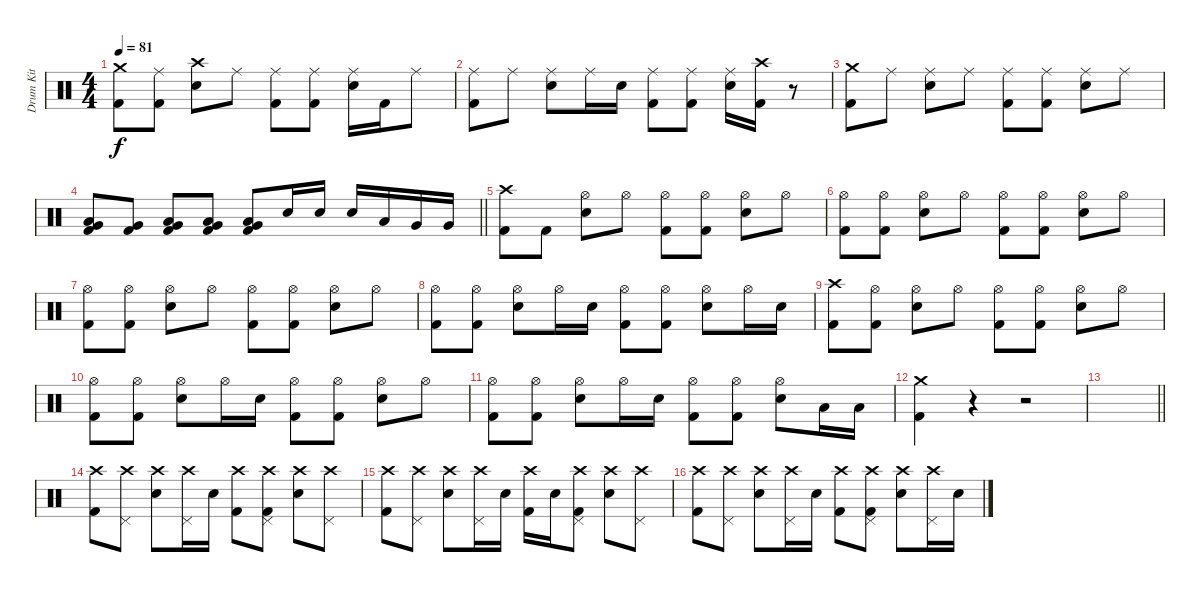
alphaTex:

\track ("Drum Kit" "Drum Kit") {instrument percussion}
\staff {score}
\articulation defaults
\ts (4 4)
\tempo 81
\clef neutral
\ks c
("Crash medium (hit)" "Kick (hit) 2").8{dy f} ("Ride (middle)" "Kick (hit) 2").8 ("Crash high (hit)" "Snare (hit) 2").8 "Ride (middle)".8 ("Ride (middle)" "Kick (hit) 2").8 ("Ride (middle)" "Kick (hit) 2").8 ("Ride (middle)" "Snare (hit) 2").16 "Kick (hit) 2".16 "Ride (middle)".8 |
("Ride (middle)" "Kick (hit) 2").8 "Ride (middle)".8 ("Ride (middle)" "Snare (hit) 2").8 "Ride (middle)".16 "Snare (hit) 2".16 ("Ride (middle)" "Kick (hit) 2").8 ("Ride (middle)" "Kick (hit) 2").8 ("Ride (middle)" "Snare (hit) 2").16 ("Crash high (hit)" "Kick (hit) 2").16 r.8 |
("Crash medium (hit)" "Kick (hit) 2").8 "Ride (middle)".8 ("Ride (middle)" "Snare (hit) 2").8 "Ride (middle)".8 ("Ride (middle)" "Kick (hit) 2").8 ("Ride (middle)" "Kick (hit) 2").8 ("Ride (middle)" "Snare (hit) 2").8 "Ride (middle)".8 |
\barLineRight lightlight
("Low Tom (hit)" "Very Low Tom (hit)" "Kick (hit) 2").8 ("Very Low Tom (hit)" "Kick (hit) 2").8 ("Low Tom (hit)" "Very Low Tom (hit)" "Kick (hit) 2").8 ("Low Tom (hit)" "Very Low Tom (hit)" "Kick (hit) 2").8 ("Low Tom (hit)" "Very Low Tom (hit)" "Kick (hit) 2").8 "Snare (hit) 2".16 "Snare (hit) 2".16 "Snare (hit) 2".16 "Low Tom (hit)".16 "Very Low Tom (hit)".16 "Very Low Tom (hit)".16 |
("Crash high (hit)" "Kick (hit) 2").8 "Kick (hit) 2".8 ("Hi-Hat (open)" "Snare (hit) 2").8 "Hi-Hat (open)".8 ("Hi-Hat (open)" "Kick (hit) 2").8 ("Hi-Hat (open)" "Kick (hit) 2").8 ("Hi-Hat (open)" "Snare (hit) 2").8 "Hi-Hat (open)".8 |
("Hi-Hat (open)" "Kick (hit) 2").8 ("Hi-Hat (open)" "Kick (hit) 2").8 ("Hi-Hat (open)" "Snare (hit) 2").8 "Hi-Hat (open)".8 ("Hi-Hat (open)" "Kick (hit) 2").8 ("Hi-Hat (open)" "Kick (hit) 2").8 ("Hi-Hat (open)" "Snare (hit) 2").8 "Hi-Hat (open)".8 |
("Hi-Hat (open)" "Kick (hit) 2").8 ("Hi-Hat (open)" "Kick (hit) 2").8 ("Hi-Hat (open)" "Snare (hit) 2").8 "Hi-Hat (open)".8 ("Hi-Hat (open)" "Kick (hit) 2").8 ("Hi-Hat (open)" "Kick (hit) 2").8 ("Hi-Hat (open)" "Snare (hit) 2").8 "Hi-Hat (open)".8 |
("Hi-Hat (open)" "Kick (hit) 2").8 ("Hi-Hat (open)" "Kick (hit) 2").8 ("Hi-Hat (open)" "Snare (hit) 2").8 "Hi-Hat (open)".16 "Snare (hit) 2".16 ("Hi-Hat (open)" "Kick (hit) 2").8 ("Hi-Hat (open)" "Kick (hit) 2").8 ("Hi-Hat (open)" "Snare (hit) 2").8 "Hi-Hat (open)".16 "Snare (hit) 2".16 |
("Crash high (hit)" "Kick (hit) 2").8 ("Hi-Hat (open)" "Kick (hit) 2").8 ("Hi-Hat (open)" "Snare (hit) 2").8 "Hi-Hat (open)".8 ("Hi-Hat (open)" "Kick (hit) 2").8 ("Hi-Hat (open)" "Kick (hit) 2").8 ("Hi-Hat (open)" "Snare (hit) 2").8 "Hi-Hat (open)".8 |
("Hi-Hat (open)" "Kick (hit) 2").8 ("Hi-Hat (open)" "Kick (hit) 2").8 ("Hi-Hat (open)" "Snare (hit) 2").8 "Hi-Hat (open)".16 "Snare (hit) 2".16 ("Hi-Hat (open)" "Kick (hit) 2").8 ("Hi-Hat (open)" "Kick (hit) 2").8 ("Hi-Hat (open)" "Snare (hit) 2").8 "Hi-Hat (open)".8 |
("Hi-Hat (open)" "Kick (hit) 2").8 ("Hi-Hat (open)" "Kick (hit) 2").8 ("Hi-Hat (open)" "Snare (hit) 2").8 "Hi-Hat (open)".16 "Snare (hit) 2".16 ("Hi-Hat (open)" "Kick (hit) 2").8 ("Hi-Hat (open)" "Kick (hit) 2").8 ("Hi-Hat (open)" "Snare (hit) 2").8 "Low Tom (hit)".16 "Low Tom (hit)".16 |
("Crash medium (hit)" "Kick (hit) 2").4 r.4 r.2 |
\barLineRight lightlight
|
("Crash high (hit)" "Kick (hit) 2").8 ("Crash high (hit)" "Pedal Hi-Hat (hit)").8 ("Crash high (hit)" "Snare (hit) 2").8 ("Crash high (hit)" "Pedal Hi-Hat (hit)").16 "Snare (hit) 2".16 ("Crash high (hit)" "Kick (hit) 2").8 ("Crash high (hit)" "Pedal Hi-Hat (hit)" "Kick (hit) 2").8 ("Crash high (hit)" "Snare (hit) 2").8 ("Crash high (hit)" "Pedal Hi-Hat (hit)").8 |
("Crash high (hit)" "Kick (hit) 2").8 ("Crash high (hit)" "Pedal Hi-Hat (hit)").8 ("Crash high (hit)" "Snare (hit) 2").8 ("Crash high (hit)" "Pedal Hi-Hat (hit)").16 "Snare (hit) 2".16 ("Crash high (hit)" "Kick (hit) 2").16 "Snare (hit) 2".16 ("Crash high (hit)" "Pedal Hi-Hat (hit)" "Kick (hit) 2").8 ("Crash high (hit)" "Snare (hit) 2").8 ("Crash high (hit)" "Pedal Hi-Hat (hit)").8 |
("Crash high (hit)" "Kick (hit) 2").8 ("Crash high (hit)" "Pedal Hi-Hat (hit)").8 ("Crash high (hit)" "Snare (hit) 2").8 ("Crash high (hit)" "Pedal Hi-Hat (hit)").16 "Snare (hit) 2".16 ("Crash high (hit)" "Kick (hit) 2").8 ("Crash high (hit)" "Pedal Hi-Hat (hit)" "Kick (hit) 2").8 ("Crash high (hit)" "Snare (hit) 2").8 ("Crash high (hit)" "Pedal Hi-Hat (hit)").16 "Snare (hit) 2".16
